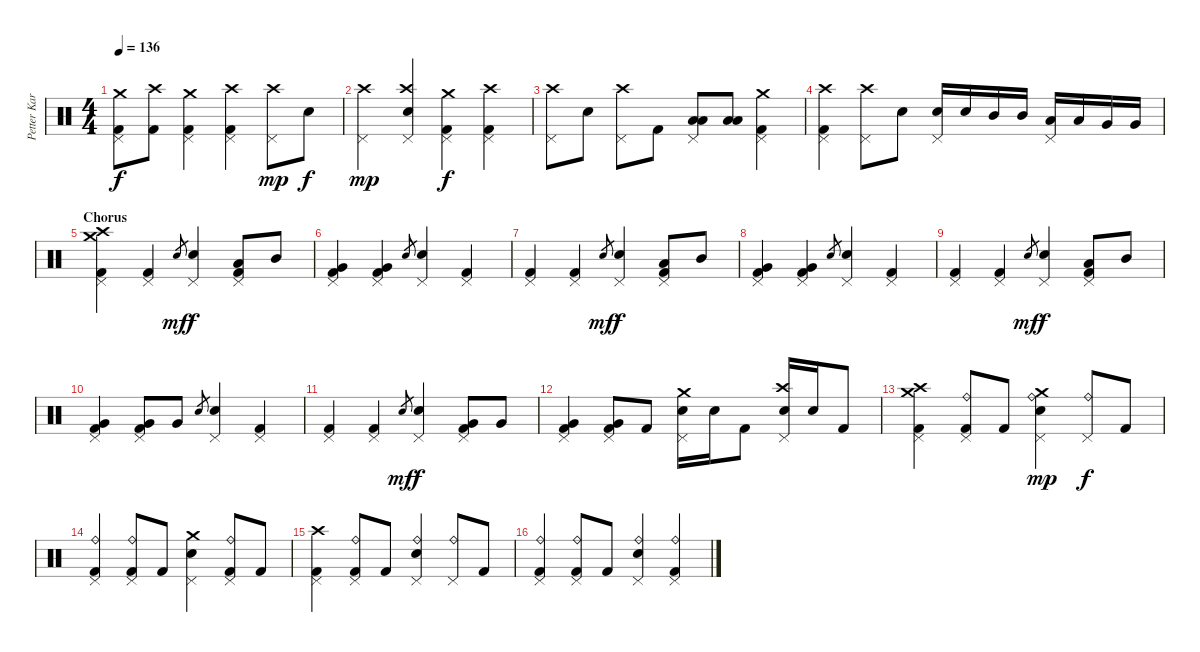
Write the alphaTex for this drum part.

\track ("Petter Karlsson" "Petter Kar") {instrument percussion}
\staff {score}
\articulation defaults
\ts (4 4)
\tempo 136
\clef neutral
\ks c
("Crash medium (hit)" "Pedal Hi-Hat (hit)" "Kick (hit) 2").8{dy f} ("Crash high (hit)" "Kick (hit) 2").8 ("Crash medium (hit)" "Pedal Hi-Hat (hit)" "Kick (hit) 2").4 ("Crash high (hit)" "Pedal Hi-Hat (hit)" "Kick (hit) 2").4 ("Pedal Hi-Hat (hit)" "Crash high (hit)").8{dy mp} "Snare (hit) 2".8{dy f} |
("Pedal Hi-Hat (hit)" "Crash high (hit)").4{dy mp} ("Pedal Hi-Hat (hit)" "Crash high (hit)" "Snare (hit) 2").4 ("Crash medium (hit)" "Pedal Hi-Hat (hit)" "Kick (hit) 2").4{dy f} ("Crash high (hit)" "Pedal Hi-Hat (hit)" "Kick (hit) 2").4 |
("Crash high (hit)" "Pedal Hi-Hat (hit)").8 "Snare (hit) 2".8 ("Crash high (hit)" "Pedal Hi-Hat (hit)").8 "Kick (hit) 2".8 ("Pedal Hi-Hat (hit)" "Low Tom (hit)" "Low Floor Tom (hit)").8 ("Low Tom (hit)" "Low Floor Tom (hit)").8 ("Crash medium (hit)" "Pedal Hi-Hat (hit)" "Kick (hit) 2").4 |
("Crash high (hit)" "Pedal Hi-Hat (hit)" "Kick (hit) 2").4 ("Pedal Hi-Hat (hit)" "Crash high (hit)").8 "Snare (hit) 2".8 ("Pedal Hi-Hat (hit)" "Snare (hit) 2").16 "Snare (hit) 2".16 "Mid Tom (hit)".16 "Mid Tom (hit)".16 ("Pedal Hi-Hat (hit)" "Low Tom (hit)").16 "Low Tom (hit)".16 "Very Low Tom (hit)".16 "Very Low Tom (hit)".16 |
\section ("" "Chorus")
("Crash high (hit)" "Crash medium (hit)" "Pedal Hi-Hat (hit)" "Kick (hit) 2").4 ("Pedal Hi-Hat (hit)" "Kick (hit) 2").4 "Snare (hit) 2".8{gr dy mf} ("Snare (hit) 2" "Pedal Hi-Hat (hit)").4{dy f} ("Low Tom (hit)" "Pedal Hi-Hat (hit)" "Kick (hit) 2").8 "Mid Tom (hit)".8 |
("Very Low Tom (hit)" "Pedal Hi-Hat (hit)" "Kick (hit) 2").4 ("Very Low Tom (hit)" "Pedal Hi-Hat (hit)" "Kick (hit) 2").4 "Snare (hit) 2".8{gr} ("Snare (hit) 2" "Pedal Hi-Hat (hit)").4 ("Pedal Hi-Hat (hit)" "Kick (hit) 2").4 |
("Pedal Hi-Hat (hit)" "Kick (hit) 2").4 ("Pedal Hi-Hat (hit)" "Kick (hit) 2").4 "Snare (hit) 2".8{gr dy mf} ("Snare (hit) 2" "Pedal Hi-Hat (hit)").4{dy f} ("Low Tom (hit)" "Pedal Hi-Hat (hit)" "Kick (hit) 2").8 "Mid Tom (hit)".8 |
("Very Low Tom (hit)" "Pedal Hi-Hat (hit)" "Kick (hit) 2").4 ("Very Low Tom (hit)" "Pedal Hi-Hat (hit)" "Kick (hit) 2").4 "Snare (hit) 2".8{gr} ("Snare (hit) 2" "Pedal Hi-Hat (hit)").4 ("Pedal Hi-Hat (hit)" "Kick (hit) 2").4 |
("Pedal Hi-Hat (hit)" "Kick (hit) 2").4 ("Pedal Hi-Hat (hit)" "Kick (hit) 2").4 "Snare (hit) 2".8{gr dy mf} ("Snare (hit) 2" "Pedal Hi-Hat (hit)").4{dy f} ("Low Tom (hit)" "Pedal Hi-Hat (hit)" "Kick (hit) 2").8 "Mid Tom (hit)".8 |
("Very Low Tom (hit)" "Pedal Hi-Hat (hit)" "Kick (hit) 2").4 ("Very Low Tom (hit)" "Pedal Hi-Hat (hit)" "Kick (hit) 2").8 "Very Low Tom (hit)".8 "Snare (hit) 2".8{gr} ("Snare (hit) 2" "Pedal Hi-Hat (hit)").4 ("Pedal Hi-Hat (hit)" "Kick (hit) 2").4 |
("Pedal Hi-Hat (hit)" "Kick (hit) 2").4 ("Pedal Hi-Hat (hit)" "Kick (hit) 2").4 "Snare (hit) 2".8{gr dy mf} ("Snare (hit) 2" "Pedal Hi-Hat (hit)").4{dy f} ("Very Low Tom (hit)" "Pedal Hi-Hat (hit)" "Kick (hit) 2").8 "Very Low Tom (hit)".8 |
("Very Low Tom (hit)" "Pedal Hi-Hat (hit)" "Kick (hit) 2").4 ("Very Low Tom (hit)" "Pedal Hi-Hat (hit)" "Kick (hit) 2").8 "Kick (hit) 2".8 ("Crash medium (hit)" "Snare (hit) 2" "Pedal Hi-Hat (hit)").16 "Snare (hit) 2".16 "Kick (hit) 2".8 ("Crash high (hit)" "Snare (hit) 2" "Pedal Hi-Hat (hit)").16 "Snare (hit) 2".16 "Kick (hit) 2".8 |
("Crash high (hit)" "Crash medium (hit)" "Pedal Hi-Hat (hit)" "Kick (hit) 2").4 ("Ride (bell)" "Pedal Hi-Hat (hit)" "Kick (hit) 2").8 "Kick (hit) 2".8 ("Ride (bell)" "Crash medium (hit)" "Snare (hit) 2" "Pedal Hi-Hat (hit)").4{dy mp} ("Ride (bell)" "Pedal Hi-Hat (hit)").8{dy f} "Kick (hit) 2".8 |
("Ride (bell)" "Pedal Hi-Hat (hit)" "Kick (hit) 2").4 ("Ride (bell)" "Pedal Hi-Hat (hit)" "Kick (hit) 2").8 "Kick (hit) 2".8 ("Crash medium (hit)" "Snare (hit) 2" "Pedal Hi-Hat (hit)").4 ("Ride (bell)" "Pedal Hi-Hat (hit)" "Kick (hit) 2").8 "Kick (hit) 2".8 |
("Crash high (hit)" "Pedal Hi-Hat (hit)" "Kick (hit) 2").4 ("Ride (bell)" "Pedal Hi-Hat (hit)" "Kick (hit) 2").8 "Kick (hit) 2".8 ("Ride (bell)" "Snare (hit) 2" "Pedal Hi-Hat (hit)").4 ("Ride (bell)" "Pedal Hi-Hat (hit)").8 "Kick (hit) 2".8 |
("Ride (bell)" "Pedal Hi-Hat (hit)" "Kick (hit) 2").4 ("Ride (bell)" "Pedal Hi-Hat (hit)" "Kick (hit) 2").8 "Kick (hit) 2".8 ("Ride (bell)" "Snare (hit) 2" "Pedal Hi-Hat (hit)").4 ("Ride (bell)" "Pedal Hi-Hat (hit)" "Kick (hit) 2").4
